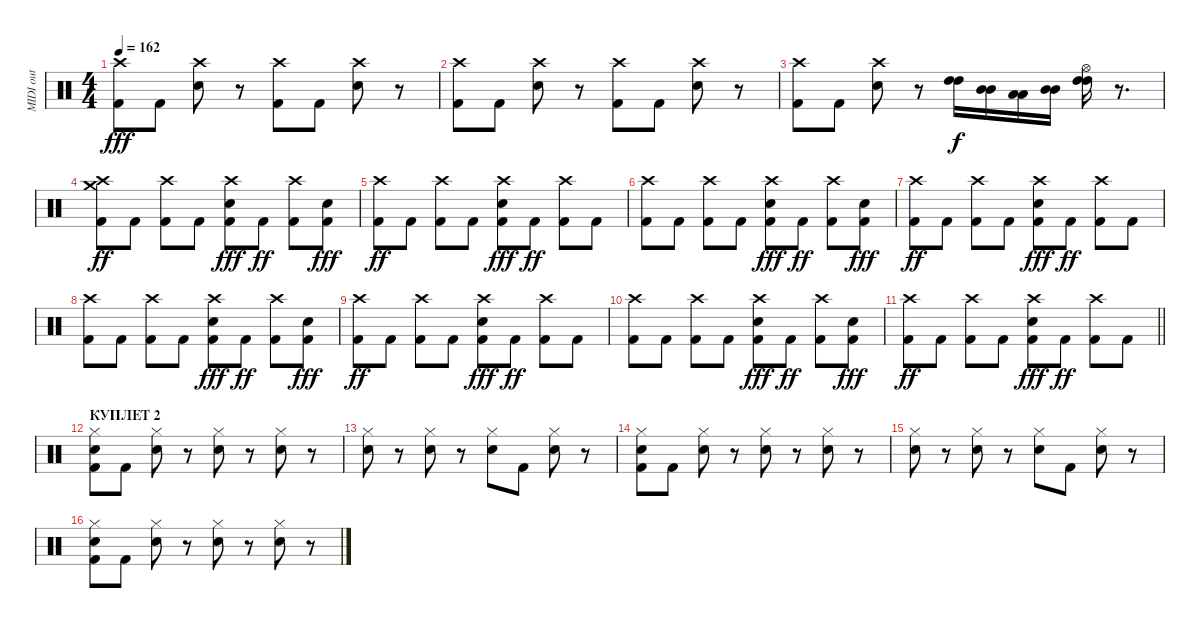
\track ("MIDI out" "MIDI out") {instrument percussion}
\staff {score}
\articulation defaults
\ts (4 4)
\tempo 162
\clef neutral
\ks c
("Crash high (hit)" "Kick (hit) 2").8{dy fff} "Kick (hit) 2".8 ("Crash high (hit)" "Snare (hit) 2").8 r.8 ("Crash high (hit)" "Kick (hit) 2").8 "Kick (hit) 2".8 ("Crash high (hit)" "Snare (hit) 2").8 r.8 |
("Crash high (hit)" "Kick (hit) 2").8 "Kick (hit) 2".8 ("Crash high (hit)" "Snare (hit) 2").8 r.8 ("Crash high (hit)" "Kick (hit) 2").8 "Kick (hit) 2".8 ("Crash high (hit)" "Snare (hit) 2").8 r.8 |
("Crash high (hit)" "Kick (hit) 2").8 "Kick (hit) 2".8 ("Crash high (hit)" "Snare (hit) 2").8 r.8 ("High Tom (hit)" "High Tom (hit)").16{dy f} ("Mid Tom (hit)" "Mid Tom (hit)").16 ("Low Tom (hit)" "Low Tom (hit)").16 ("Mid Tom (hit)" "Mid Tom (hit)").16 ("Hi-Hat (open)" "High Tom (hit)" "High Tom (hit)").16 r.8{d} |
("Crash medium (hit)" "Crash high (hit)" "Kick (hit) 2").8{dy ff} "Kick (hit) 2".8 ("Kick (hit) 2" "Crash high (hit)").8 "Kick (hit) 2".8 ("Crash high (hit)" "Kick (hit) 2" "Snare (hit) 2").8{dy fff} "Kick (hit) 2".8{dy ff} ("Kick (hit) 2" "Crash high (hit)").8 ("Kick (hit) 2" "Snare (hit) 2").8{dy fff} |
("Kick (hit) 2" "Crash high (hit)").8{dy ff} "Kick (hit) 2".8 ("Kick (hit) 2" "Crash high (hit)").8 "Kick (hit) 2".8 ("Kick (hit) 2" "Crash high (hit)" "Snare (hit) 2").8{dy fff} "Kick (hit) 2".8{dy ff} ("Kick (hit) 2" "Crash high (hit)").8 "Kick (hit) 2".8 |
("Crash high (hit)" "Kick (hit) 2").8 "Kick (hit) 2".8 ("Kick (hit) 2" "Crash high (hit)").8 "Kick (hit) 2".8 ("Crash high (hit)" "Kick (hit) 2" "Snare (hit) 2").8{dy fff} "Kick (hit) 2".8{dy ff} ("Kick (hit) 2" "Crash high (hit)").8 ("Kick (hit) 2" "Snare (hit) 2").8{dy fff} |
("Kick (hit) 2" "Crash high (hit)").8{dy ff} "Kick (hit) 2".8 ("Kick (hit) 2" "Crash high (hit)").8 "Kick (hit) 2".8 ("Kick (hit) 2" "Crash high (hit)" "Snare (hit) 2").8{dy fff} "Kick (hit) 2".8{dy ff} ("Kick (hit) 2" "Crash high (hit)").8 "Kick (hit) 2".8 |
("Crash high (hit)" "Kick (hit) 2").8 "Kick (hit) 2".8 ("Kick (hit) 2" "Crash high (hit)").8 "Kick (hit) 2".8 ("Crash high (hit)" "Kick (hit) 2" "Snare (hit) 2").8{dy fff} "Kick (hit) 2".8{dy ff} ("Kick (hit) 2" "Crash high (hit)").8 ("Kick (hit) 2" "Snare (hit) 2").8{dy fff} |
("Kick (hit) 2" "Crash high (hit)").8{dy ff} "Kick (hit) 2".8 ("Kick (hit) 2" "Crash high (hit)").8 "Kick (hit) 2".8 ("Kick (hit) 2" "Crash high (hit)" "Snare (hit) 2").8{dy fff} "Kick (hit) 2".8{dy ff} ("Kick (hit) 2" "Crash high (hit)").8 "Kick (hit) 2".8 |
("Crash high (hit)" "Kick (hit) 2").8 "Kick (hit) 2".8 ("Kick (hit) 2" "Crash high (hit)").8 "Kick (hit) 2".8 ("Crash high (hit)" "Kick (hit) 2" "Snare (hit) 2").8{dy fff} "Kick (hit) 2".8{dy ff} ("Kick (hit) 2" "Crash high (hit)").8 ("Kick (hit) 2" "Snare (hit) 2").8{dy fff} |
\barLineRight lightlight
("Kick (hit) 2" "Crash high (hit)").8{dy ff} "Kick (hit) 2".8 ("Kick (hit) 2" "Crash high (hit)").8 "Kick (hit) 2".8 ("Kick (hit) 2" "Crash high (hit)" "Snare (hit) 2").8{dy fff} "Kick (hit) 2".8{dy ff} ("Kick (hit) 2" "Crash high (hit)").8 "Kick (hit) 2".8 |
\section ("" "КУПЛЕТ 2")
("Snare (hit) 2" "Kick (hit) 2" "Hi-Hat (closed)").8 "Kick (hit) 2".8 ("Snare (hit) 2" "Hi-Hat (closed)").8 r.8 ("Snare (hit) 2" "Hi-Hat (closed)").8 r.8 ("Snare (hit) 2" "Hi-Hat (closed)").8 r.8 |
("Snare (hit) 2" "Hi-Hat (closed)").8 r.8 ("Snare (hit) 2" "Hi-Hat (closed)").8 r.8 ("Snare (hit) 2" "Hi-Hat (closed)").8 "Kick (hit) 2".8 ("Snare (hit) 2" "Hi-Hat (closed)").8 r.8 |
("Snare (hit) 2" "Kick (hit) 2" "Hi-Hat (closed)").8 "Kick (hit) 2".8 ("Snare (hit) 2" "Hi-Hat (closed)").8 r.8 ("Snare (hit) 2" "Hi-Hat (closed)").8 r.8 ("Snare (hit) 2" "Hi-Hat (closed)").8 r.8 |
("Snare (hit) 2" "Hi-Hat (closed)").8 r.8 ("Snare (hit) 2" "Hi-Hat (closed)").8 r.8 ("Snare (hit) 2" "Hi-Hat (closed)").8 "Kick (hit) 2".8 ("Snare (hit) 2" "Hi-Hat (closed)").8 r.8 |
("Snare (hit) 2" "Kick (hit) 2" "Hi-Hat (closed)").8 "Kick (hit) 2".8 ("Snare (hit) 2" "Hi-Hat (closed)").8 r.8 ("Snare (hit) 2" "Hi-Hat (closed)").8 r.8 ("Snare (hit) 2" "Hi-Hat (closed)").8 r.8
